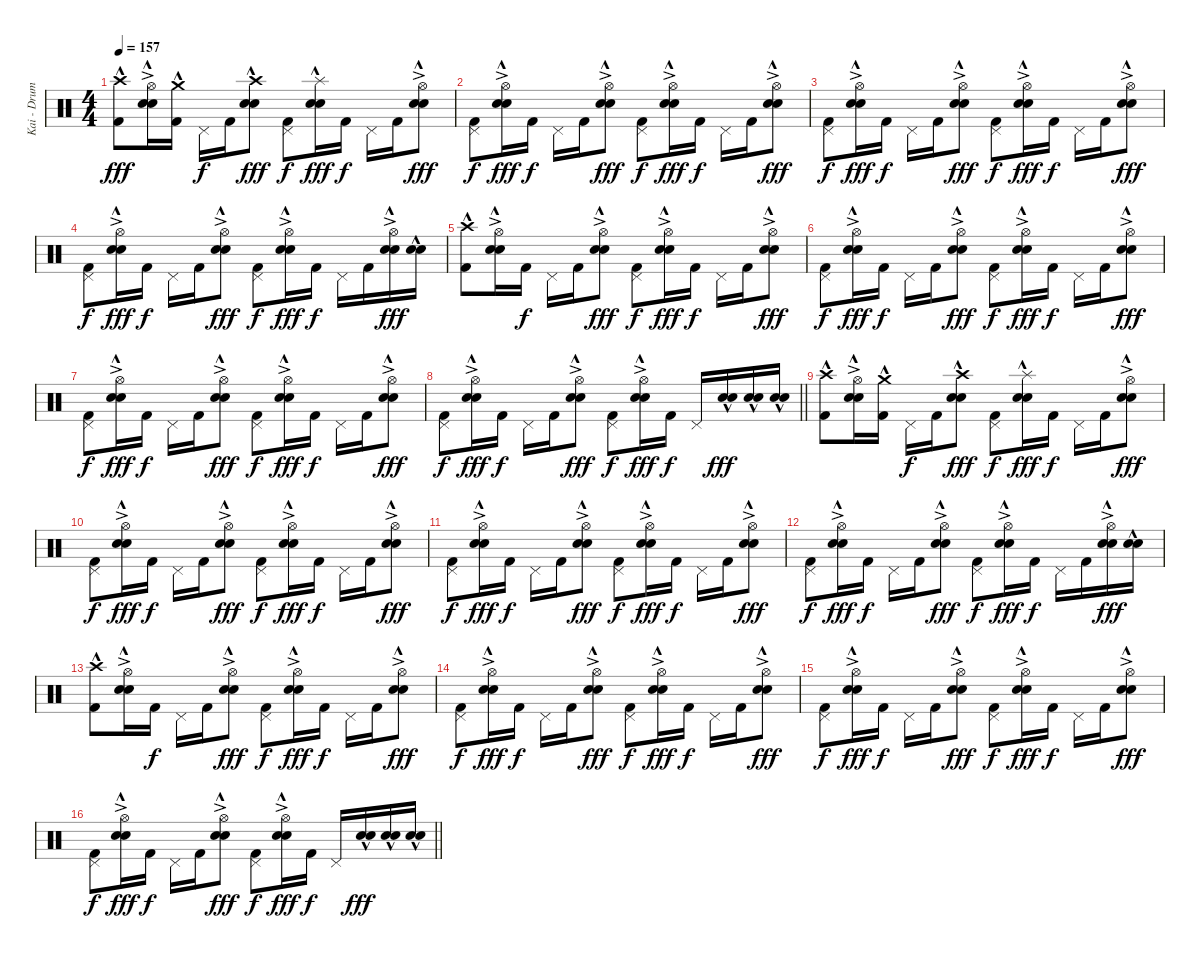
\track ("Kai - Drums" "Kai - Drum") {instrument percussion}
\staff {score}
\articulation defaults
\ts (4 4)
\section ("" "")
\tempo 157
\clef neutral
\ks c
("Crash high (hit)"{hac} "Kick (hit) 2").8{dy fff} ("Hi-Hat (open)"{ac} "Electric Snare (hit)"{hac} "Snare (hit) 2").16 ("Crash medium (hit)"{hac} "Kick (hit) 2").16 "Pedal Hi-Hat (hit)".16{dy f} "Kick (hit) 2".16 ("Crash high (hit)"{hac} "Electric Snare (hit)"{hac} "Snare (hit) 2").8{dy fff} ("Pedal Hi-Hat (hit)" "Kick (hit) 2").8{dy f} ("Splash (hit)"{hac} "Electric Snare (hit)"{hac} "Snare (hit) 2").16{dy fff} "Kick (hit) 2".16{dy f} "Pedal Hi-Hat (hit)".16 "Kick (hit) 2".16 ("Hi-Hat (open)"{ac} "Electric Snare (hit)"{hac} "Snare (hit) 2").8{dy fff} |
("Pedal Hi-Hat (hit)" "Kick (hit) 2").8{dy f} ("Hi-Hat (open)"{ac} "Electric Snare (hit)"{hac} "Snare (hit) 2").16{dy fff} "Kick (hit) 2".16{dy f} "Pedal Hi-Hat (hit)".16 "Kick (hit) 2".16 ("Hi-Hat (open)"{ac} "Electric Snare (hit)"{hac} "Snare (hit) 2").8{dy fff} ("Pedal Hi-Hat (hit)" "Kick (hit) 2").8{dy f} ("Hi-Hat (open)"{ac} "Electric Snare (hit)"{hac} "Snare (hit) 2").16{dy fff} "Kick (hit) 2".16{dy f} "Pedal Hi-Hat (hit)".16 "Kick (hit) 2".16 ("Hi-Hat (open)"{ac} "Electric Snare (hit)"{hac} "Snare (hit) 2").8{dy fff} |
("Pedal Hi-Hat (hit)" "Kick (hit) 2").8{dy f} ("Hi-Hat (open)"{ac} "Electric Snare (hit)"{hac} "Snare (hit) 2").16{dy fff} "Kick (hit) 2".16{dy f} "Pedal Hi-Hat (hit)".16 "Kick (hit) 2".16 ("Hi-Hat (open)"{ac} "Electric Snare (hit)"{hac} "Snare (hit) 2").8{dy fff} ("Pedal Hi-Hat (hit)" "Kick (hit) 2").8{dy f} ("Hi-Hat (open)"{ac} "Electric Snare (hit)"{hac} "Snare (hit) 2").16{dy fff} "Kick (hit) 2".16{dy f} "Pedal Hi-Hat (hit)".16 "Kick (hit) 2".16 ("Hi-Hat (open)"{ac} "Electric Snare (hit)"{hac} "Snare (hit) 2").8{dy fff} |
("Pedal Hi-Hat (hit)" "Kick (hit) 2").8{dy f} ("Hi-Hat (open)"{ac} "Electric Snare (hit)"{hac} "Snare (hit) 2").16{dy fff} "Kick (hit) 2".16{dy f} "Pedal Hi-Hat (hit)".16 "Kick (hit) 2".16 ("Hi-Hat (open)"{ac} "Electric Snare (hit)"{hac} "Snare (hit) 2").8{dy fff} ("Pedal Hi-Hat (hit)" "Kick (hit) 2").8{dy f} ("Hi-Hat (open)"{ac} "Electric Snare (hit)"{hac} "Snare (hit) 2").16{dy fff} "Kick (hit) 2".16{dy f} "Pedal Hi-Hat (hit)".16 "Kick (hit) 2".16 ("Hi-Hat (open)"{ac} "Electric Snare (hit)"{hac} "Snare (hit) 2").16{dy fff} ("Electric Snare (hit)"{hac} "Snare (hit) 2").16 |
("Crash high (hit)"{hac} "Kick (hit) 2").8 ("Hi-Hat (open)"{ac} "Electric Snare (hit)"{hac} "Snare (hit) 2").16 "Kick (hit) 2".16{dy f} "Pedal Hi-Hat (hit)".16 "Kick (hit) 2".16 ("Hi-Hat (open)"{ac} "Electric Snare (hit)"{hac} "Snare (hit) 2").8{dy fff} ("Pedal Hi-Hat (hit)" "Kick (hit) 2").8{dy f} ("Hi-Hat (open)"{ac} "Electric Snare (hit)"{hac} "Snare (hit) 2").16{dy fff} "Kick (hit) 2".16{dy f} "Pedal Hi-Hat (hit)".16 "Kick (hit) 2".16 ("Hi-Hat (open)"{ac} "Electric Snare (hit)"{hac} "Snare (hit) 2").8{dy fff} |
("Pedal Hi-Hat (hit)" "Kick (hit) 2").8{dy f} ("Hi-Hat (open)"{ac} "Electric Snare (hit)"{hac} "Snare (hit) 2").16{dy fff} "Kick (hit) 2".16{dy f} "Pedal Hi-Hat (hit)".16 "Kick (hit) 2".16 ("Hi-Hat (open)"{ac} "Electric Snare (hit)"{hac} "Snare (hit) 2").8{dy fff} ("Pedal Hi-Hat (hit)" "Kick (hit) 2").8{dy f} ("Hi-Hat (open)"{ac} "Electric Snare (hit)"{hac} "Snare (hit) 2").16{dy fff} "Kick (hit) 2".16{dy f} "Pedal Hi-Hat (hit)".16 "Kick (hit) 2".16 ("Hi-Hat (open)"{ac} "Electric Snare (hit)"{hac} "Snare (hit) 2").8{dy fff} |
("Pedal Hi-Hat (hit)" "Kick (hit) 2").8{dy f} ("Hi-Hat (open)"{ac} "Electric Snare (hit)"{hac} "Snare (hit) 2").16{dy fff} "Kick (hit) 2".16{dy f} "Pedal Hi-Hat (hit)".16 "Kick (hit) 2".16 ("Hi-Hat (open)"{ac} "Electric Snare (hit)"{hac} "Snare (hit) 2").8{dy fff} ("Pedal Hi-Hat (hit)" "Kick (hit) 2").8{dy f} ("Hi-Hat (open)"{ac} "Electric Snare (hit)"{hac} "Snare (hit) 2").16{dy fff} "Kick (hit) 2".16{dy f} "Pedal Hi-Hat (hit)".16 "Kick (hit) 2".16 ("Hi-Hat (open)"{ac} "Electric Snare (hit)"{hac} "Snare (hit) 2").8{dy fff} |
\barLineRight lightlight
("Pedal Hi-Hat (hit)" "Kick (hit) 2").8{dy f} ("Hi-Hat (open)"{ac} "Electric Snare (hit)"{hac} "Snare (hit) 2").16{dy fff} "Kick (hit) 2".16{dy f} "Pedal Hi-Hat (hit)".16 "Kick (hit) 2".16 ("Hi-Hat (open)"{ac} "Electric Snare (hit)"{hac} "Snare (hit) 2").8{dy fff} ("Pedal Hi-Hat (hit)" "Kick (hit) 2").8{dy f} ("Hi-Hat (open)"{ac} "Electric Snare (hit)"{hac} "Snare (hit) 2").16{dy fff} "Kick (hit) 2".16{dy f} "Pedal Hi-Hat (hit)".16 ("Electric Snare (hit)"{hac} "Snare (hit) 2").16{dy fff} ("Electric Snare (hit)"{hac} "Snare (hit) 2").16 ("Electric Snare (hit)"{hac} "Snare (hit) 2").16 |
\section ("" "")
("Crash high (hit)"{hac} "Kick (hit) 2").8 ("Hi-Hat (open)"{ac} "Electric Snare (hit)"{hac} "Snare (hit) 2").16 ("Crash medium (hit)"{hac} "Kick (hit) 2").16 "Pedal Hi-Hat (hit)".16{dy f} "Kick (hit) 2".16 ("Crash high (hit)"{hac} "Electric Snare (hit)"{hac} "Snare (hit) 2").8{dy fff} ("Pedal Hi-Hat (hit)" "Kick (hit) 2").8{dy f} ("Splash (hit)"{hac} "Electric Snare (hit)"{hac} "Snare (hit) 2").16{dy fff} "Kick (hit) 2".16{dy f} "Pedal Hi-Hat (hit)".16 "Kick (hit) 2".16 ("Hi-Hat (open)"{ac} "Electric Snare (hit)"{hac} "Snare (hit) 2").8{dy fff} |
("Pedal Hi-Hat (hit)" "Kick (hit) 2").8{dy f} ("Hi-Hat (open)"{ac} "Electric Snare (hit)"{hac} "Snare (hit) 2").16{dy fff} "Kick (hit) 2".16{dy f} "Pedal Hi-Hat (hit)".16 "Kick (hit) 2".16 ("Hi-Hat (open)"{ac} "Electric Snare (hit)"{hac} "Snare (hit) 2").8{dy fff} ("Pedal Hi-Hat (hit)" "Kick (hit) 2").8{dy f} ("Hi-Hat (open)"{ac} "Electric Snare (hit)"{hac} "Snare (hit) 2").16{dy fff} "Kick (hit) 2".16{dy f} "Pedal Hi-Hat (hit)".16 "Kick (hit) 2".16 ("Hi-Hat (open)"{ac} "Electric Snare (hit)"{hac} "Snare (hit) 2").8{dy fff} |
("Pedal Hi-Hat (hit)" "Kick (hit) 2").8{dy f} ("Hi-Hat (open)"{ac} "Electric Snare (hit)"{hac} "Snare (hit) 2").16{dy fff} "Kick (hit) 2".16{dy f} "Pedal Hi-Hat (hit)".16 "Kick (hit) 2".16 ("Hi-Hat (open)"{ac} "Electric Snare (hit)"{hac} "Snare (hit) 2").8{dy fff} ("Pedal Hi-Hat (hit)" "Kick (hit) 2").8{dy f} ("Hi-Hat (open)"{ac} "Electric Snare (hit)"{hac} "Snare (hit) 2").16{dy fff} "Kick (hit) 2".16{dy f} "Pedal Hi-Hat (hit)".16 "Kick (hit) 2".16 ("Hi-Hat (open)"{ac} "Electric Snare (hit)"{hac} "Snare (hit) 2").8{dy fff} |
("Pedal Hi-Hat (hit)" "Kick (hit) 2").8{dy f} ("Hi-Hat (open)"{ac} "Electric Snare (hit)"{hac} "Snare (hit) 2").16{dy fff} "Kick (hit) 2".16{dy f} "Pedal Hi-Hat (hit)".16 "Kick (hit) 2".16 ("Hi-Hat (open)"{ac} "Electric Snare (hit)"{hac} "Snare (hit) 2").8{dy fff} ("Pedal Hi-Hat (hit)" "Kick (hit) 2").8{dy f} ("Hi-Hat (open)"{ac} "Electric Snare (hit)"{hac} "Snare (hit) 2").16{dy fff} "Kick (hit) 2".16{dy f} "Pedal Hi-Hat (hit)".16 "Kick (hit) 2".16 ("Hi-Hat (open)"{ac} "Electric Snare (hit)"{hac} "Snare (hit) 2").16{dy fff} ("Electric Snare (hit)"{hac} "Snare (hit) 2").16 |
("Crash high (hit)"{hac} "Kick (hit) 2").8 ("Hi-Hat (open)"{ac} "Electric Snare (hit)"{hac} "Snare (hit) 2").16 "Kick (hit) 2".16{dy f} "Pedal Hi-Hat (hit)".16 "Kick (hit) 2".16 ("Hi-Hat (open)"{ac} "Electric Snare (hit)"{hac} "Snare (hit) 2").8{dy fff} ("Pedal Hi-Hat (hit)" "Kick (hit) 2").8{dy f} ("Hi-Hat (open)"{ac} "Electric Snare (hit)"{hac} "Snare (hit) 2").16{dy fff} "Kick (hit) 2".16{dy f} "Pedal Hi-Hat (hit)".16 "Kick (hit) 2".16 ("Hi-Hat (open)"{ac} "Electric Snare (hit)"{hac} "Snare (hit) 2").8{dy fff} |
("Pedal Hi-Hat (hit)" "Kick (hit) 2").8{dy f} ("Hi-Hat (open)"{ac} "Electric Snare (hit)"{hac} "Snare (hit) 2").16{dy fff} "Kick (hit) 2".16{dy f} "Pedal Hi-Hat (hit)".16 "Kick (hit) 2".16 ("Hi-Hat (open)"{ac} "Electric Snare (hit)"{hac} "Snare (hit) 2").8{dy fff} ("Pedal Hi-Hat (hit)" "Kick (hit) 2").8{dy f} ("Hi-Hat (open)"{ac} "Electric Snare (hit)"{hac} "Snare (hit) 2").16{dy fff} "Kick (hit) 2".16{dy f} "Pedal Hi-Hat (hit)".16 "Kick (hit) 2".16 ("Hi-Hat (open)"{ac} "Electric Snare (hit)"{hac} "Snare (hit) 2").8{dy fff} |
("Pedal Hi-Hat (hit)" "Kick (hit) 2").8{dy f} ("Hi-Hat (open)"{ac} "Electric Snare (hit)"{hac} "Snare (hit) 2").16{dy fff} "Kick (hit) 2".16{dy f} "Pedal Hi-Hat (hit)".16 "Kick (hit) 2".16 ("Hi-Hat (open)"{ac} "Electric Snare (hit)"{hac} "Snare (hit) 2").8{dy fff} ("Pedal Hi-Hat (hit)" "Kick (hit) 2").8{dy f} ("Hi-Hat (open)"{ac} "Electric Snare (hit)"{hac} "Snare (hit) 2").16{dy fff} "Kick (hit) 2".16{dy f} "Pedal Hi-Hat (hit)".16 "Kick (hit) 2".16 ("Hi-Hat (open)"{ac} "Electric Snare (hit)"{hac} "Snare (hit) 2").8{dy fff} |
\barLineRight lightlight
("Pedal Hi-Hat (hit)" "Kick (hit) 2").8{dy f} ("Hi-Hat (open)"{ac} "Electric Snare (hit)"{hac} "Snare (hit) 2").16{dy fff} "Kick (hit) 2".16{dy f} "Pedal Hi-Hat (hit)".16 "Kick (hit) 2".16 ("Hi-Hat (open)"{ac} "Electric Snare (hit)"{hac} "Snare (hit) 2").8{dy fff} ("Pedal Hi-Hat (hit)" "Kick (hit) 2").8{dy f} ("Hi-Hat (open)"{ac} "Electric Snare (hit)"{hac} "Snare (hit) 2").16{dy fff} "Kick (hit) 2".16{dy f} "Pedal Hi-Hat (hit)".16 ("Electric Snare (hit)"{hac} "Snare (hit) 2").16{dy fff} ("Electric Snare (hit)"{hac} "Snare (hit) 2").16 ("Electric Snare (hit)"{hac} "Snare (hit) 2").16
